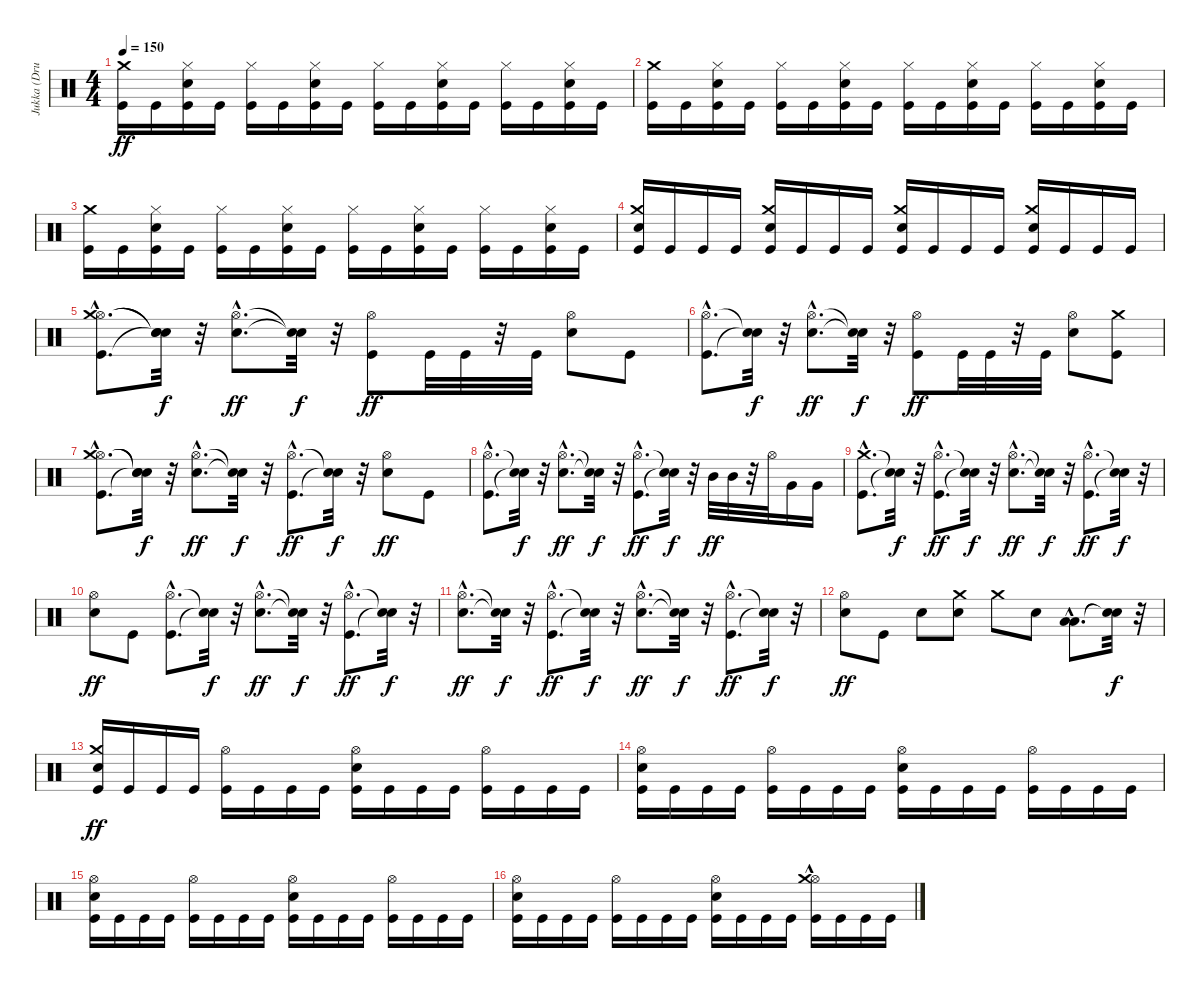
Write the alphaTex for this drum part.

\track ("Jukka (Drums)" "Jukka (Dru") {instrument percussion}
\staff {score}
\articulation defaults
\ts (4 4)
\tempo 150
\clef neutral
\ks c
("Kick (hit)" "Crash medium (hit)").16{dy ff} "Kick (hit)".16 ("Kick (hit)" "Electric Snare (hit)" "Hi-Hat (closed)").16 "Kick (hit)".16 ("Kick (hit)" "Hi-Hat (closed)").16 "Kick (hit)".16 ("Kick (hit)" "Electric Snare (hit)" "Hi-Hat (closed)").16 "Kick (hit)".16 ("Kick (hit)" "Hi-Hat (closed)").16 "Kick (hit)".16 ("Kick (hit)" "Electric Snare (hit)" "Hi-Hat (closed)").16 "Kick (hit)".16 ("Kick (hit)" "Hi-Hat (closed)").16 "Kick (hit)".16 ("Kick (hit)" "Electric Snare (hit)" "Hi-Hat (closed)").16 "Kick (hit)".16 |
("Kick (hit)" "Crash medium (hit)").16 "Kick (hit)".16 ("Kick (hit)" "Electric Snare (hit)" "Hi-Hat (closed)").16 "Kick (hit)".16 ("Kick (hit)" "Hi-Hat (closed)").16 "Kick (hit)".16 ("Kick (hit)" "Electric Snare (hit)" "Hi-Hat (closed)").16 "Kick (hit)".16 ("Kick (hit)" "Hi-Hat (closed)").16 "Kick (hit)".16 ("Kick (hit)" "Electric Snare (hit)" "Hi-Hat (closed)").16 "Kick (hit)".16 ("Kick (hit)" "Hi-Hat (closed)").16 "Kick (hit)".16 ("Kick (hit)" "Electric Snare (hit)" "Hi-Hat (closed)").16 "Kick (hit)".16 |
("Kick (hit)" "Crash medium (hit)").16 "Kick (hit)".16 ("Kick (hit)" "Electric Snare (hit)" "Hi-Hat (closed)").16 "Kick (hit)".16 ("Kick (hit)" "Hi-Hat (closed)").16 "Kick (hit)".16 ("Kick (hit)" "Electric Snare (hit)" "Hi-Hat (closed)").16 "Kick (hit)".16 ("Kick (hit)" "Hi-Hat (closed)").16 "Kick (hit)".16 ("Kick (hit)" "Electric Snare (hit)" "Hi-Hat (closed)").16 "Kick (hit)".16 ("Kick (hit)" "Hi-Hat (closed)").16 "Kick (hit)".16 ("Kick (hit)" "Electric Snare (hit)" "Hi-Hat (closed)").16 "Kick (hit)".16 |
("Kick (hit)" "Electric Snare (hit)" "Crash medium (hit)").16 "Kick (hit)".16 "Kick (hit)".16 "Kick (hit)".16 ("Kick (hit)" "Electric Snare (hit)" "Crash medium (hit)").16 "Kick (hit)".16 "Kick (hit)".16 "Kick (hit)".16 ("Kick (hit)" "Electric Snare (hit)" "Crash medium (hit)").16 "Kick (hit)".16 "Kick (hit)".16 "Kick (hit)".16 ("Kick (hit)" "Electric Snare (hit)" "Crash medium (hit)").16 "Kick (hit)".16 "Kick (hit)".16 "Kick (hit)".16 |
("Kick (hit)"{hac} "Hi-Hat (open)"{hac} "Crash medium (hit)"{hac}).8{d} ("Snare (hit)"{t} "Snare (hit)"{t} "Snare (hit)"{t}).32{dy f} r.32 ("Electric Snare (hit)"{hac} "Hi-Hat (open)"{hac}).8{d dy ff} ("Snare (hit)"{t} "Snare (hit)"{t}).32{dy f} r.32 ("Kick (hit)" "Hi-Hat (open)").8{dy ff} "Kick (hit)".32 "Kick (hit)".32 r.32 "Kick (hit)".32 ("Electric Snare (hit)" "Hi-Hat (open)").8 "Kick (hit)".8 |
("Kick (hit)"{hac} "Hi-Hat (open)"{hac}).8{d} ("Snare (hit)"{t} "Snare (hit)"{t}).32{dy f} r.32 ("Electric Snare (hit)"{hac} "Hi-Hat (open)"{hac}).8{d dy ff} ("Snare (hit)"{t} "Snare (hit)"{t}).32{dy f} r.32 ("Kick (hit)" "Hi-Hat (open)").8{dy ff} "Kick (hit)".32 "Kick (hit)".32 r.32 "Kick (hit)".32 ("Electric Snare (hit)" "Hi-Hat (open)").8 ("Kick (hit)" "Crash medium (hit)").8 |
("Kick (hit)"{hac} "Hi-Hat (open)"{hac} "Crash medium (hit)"{hac}).8{d} ("Snare (hit)"{t} "Snare (hit)"{t} "Snare (hit)"{t}).32{dy f} r.32 ("Electric Snare (hit)"{hac} "Hi-Hat (open)"{hac}).8{d dy ff} ("Snare (hit)"{t} "Snare (hit)"{t}).32{dy f} r.32 ("Kick (hit)"{hac} "Hi-Hat (open)"{hac}).8{d dy ff} ("Snare (hit)"{t} "Snare (hit)"{t}).32{dy f} r.32 ("Electric Snare (hit)" "Hi-Hat (open)").8{dy ff} "Kick (hit)".8 |
("Kick (hit)"{hac} "Hi-Hat (open)"{hac}).8{d} ("Snare (hit)"{t} "Snare (hit)"{t}).32{dy f} r.32 ("Electric Snare (hit)"{hac} "Hi-Hat (open)"{hac}).8{d dy ff} ("Snare (hit)"{t} "Snare (hit)"{t}).32{dy f} r.32 ("Kick (hit)"{hac} "Hi-Hat (open)"{hac}).8{d dy ff} ("Snare (hit)"{t} "Snare (hit)"{t}).32{dy f} r.32 "Mid Tom (hit)".32{dy ff} "Mid Tom (hit)".32 r.32 "Hi-Hat (open)".32 "Very Low Tom (hit)".16 "Very Low Tom (hit)".16 |
("Kick (hit)"{hac} "Crash medium (hit)"{hac}).8{d} ("Snare (hit)"{t} "Snare (hit)"{t}).32{dy f} r.32 ("Kick (hit)"{hac} "Hi-Hat (open)"{hac}).8{d dy ff} ("Snare (hit)"{t} "Snare (hit)"{t}).32{dy f} r.32 ("Electric Snare (hit)"{hac} "Hi-Hat (open)"{hac}).8{d dy ff} ("Snare (hit)"{t} "Snare (hit)"{t}).32{dy f} r.32 ("Kick (hit)"{hac} "Hi-Hat (open)"{hac}).8{d dy ff} ("Snare (hit)"{t} "Snare (hit)"{t}).32{dy f} r.32 |
("Electric Snare (hit)" "Hi-Hat (open)").8{dy ff} "Kick (hit)".8 ("Kick (hit)"{hac} "Hi-Hat (open)"{hac}).8{d} ("Snare (hit)"{t} "Snare (hit)"{t}).32{dy f} r.32 ("Electric Snare (hit)"{hac} "Hi-Hat (open)"{hac}).8{d dy ff} ("Snare (hit)"{t} "Snare (hit)"{t}).32{dy f} r.32 ("Kick (hit)"{hac} "Hi-Hat (open)"{hac}).8{d dy ff} ("Snare (hit)"{t} "Snare (hit)"{t}).32{dy f} r.32 |
("Electric Snare (hit)"{hac} "Hi-Hat (open)"{hac}).8{d dy ff} ("Snare (hit)"{t} "Snare (hit)"{t}).32{dy f} r.32 ("Kick (hit)"{hac} "Hi-Hat (open)"{hac}).8{d dy ff} ("Snare (hit)"{t} "Snare (hit)"{t}).32{dy f} r.32 ("Electric Snare (hit)"{hac} "Hi-Hat (open)"{hac}).8{d dy ff} ("Snare (hit)"{t} "Snare (hit)"{t}).32{dy f} r.32 ("Kick (hit)"{hac} "Hi-Hat (open)"{hac}).8{d dy ff} ("Snare (hit)"{t} "Snare (hit)"{t}).32{dy f} r.32 |
("Electric Snare (hit)" "Hi-Hat (open)").8{dy ff} "Kick (hit)".8 "Electric Snare (hit)".8 ("Electric Snare (hit)" "Crash medium (hit)").8 "Crash medium (hit)".8 "Electric Snare (hit)".8 ("Low Floor Tom (hit)"{hac} "Low Tom (hit)"{hac}).8{d} ("Snare (hit)"{t} "Snare (hit)"{t}).32{dy f} r.32 |
("Kick (hit)" "Electric Snare (hit)" "Crash medium (hit)").16{dy ff} "Kick (hit)".16 "Kick (hit)".16 "Kick (hit)".16 ("Kick (hit)" "Hi-Hat (open)").16 "Kick (hit)".16 "Kick (hit)".16 "Kick (hit)".16 ("Kick (hit)" "Electric Snare (hit)" "Hi-Hat (open)").16 "Kick (hit)".16 "Kick (hit)".16 "Kick (hit)".16 ("Kick (hit)" "Hi-Hat (open)").16 "Kick (hit)".16 "Kick (hit)".16 "Kick (hit)".16 |
("Kick (hit)" "Electric Snare (hit)" "Hi-Hat (open)").16 "Kick (hit)".16 "Kick (hit)".16 "Kick (hit)".16 ("Kick (hit)" "Hi-Hat (open)").16 "Kick (hit)".16 "Kick (hit)".16 "Kick (hit)".16 ("Kick (hit)" "Electric Snare (hit)" "Hi-Hat (open)").16 "Kick (hit)".16 "Kick (hit)".16 "Kick (hit)".16 ("Kick (hit)" "Hi-Hat (open)").16 "Kick (hit)".16 "Kick (hit)".16 "Kick (hit)".16 |
("Kick (hit)" "Electric Snare (hit)" "Hi-Hat (open)").16 "Kick (hit)".16 "Kick (hit)".16 "Kick (hit)".16 ("Kick (hit)" "Hi-Hat (open)").16 "Kick (hit)".16 "Kick (hit)".16 "Kick (hit)".16 ("Kick (hit)" "Electric Snare (hit)" "Hi-Hat (open)").16 "Kick (hit)".16 "Kick (hit)".16 "Kick (hit)".16 ("Kick (hit)" "Hi-Hat (open)").16 "Kick (hit)".16 "Kick (hit)".16 "Kick (hit)".16 |
("Kick (hit)" "Electric Snare (hit)" "Hi-Hat (open)").16 "Kick (hit)".16 "Kick (hit)".16 "Kick (hit)".16 ("Kick (hit)" "Hi-Hat (open)").16 "Kick (hit)".16 "Kick (hit)".16 "Kick (hit)".16 ("Kick (hit)" "Electric Snare (hit)" "Hi-Hat (open)").16 "Kick (hit)".16 "Kick (hit)".16 "Kick (hit)".16 ("Kick (hit)" "Hi-Hat (open)" "Crash medium (hit)"{hac}).16 "Kick (hit)".16 "Kick (hit)".16 "Kick (hit)".16
